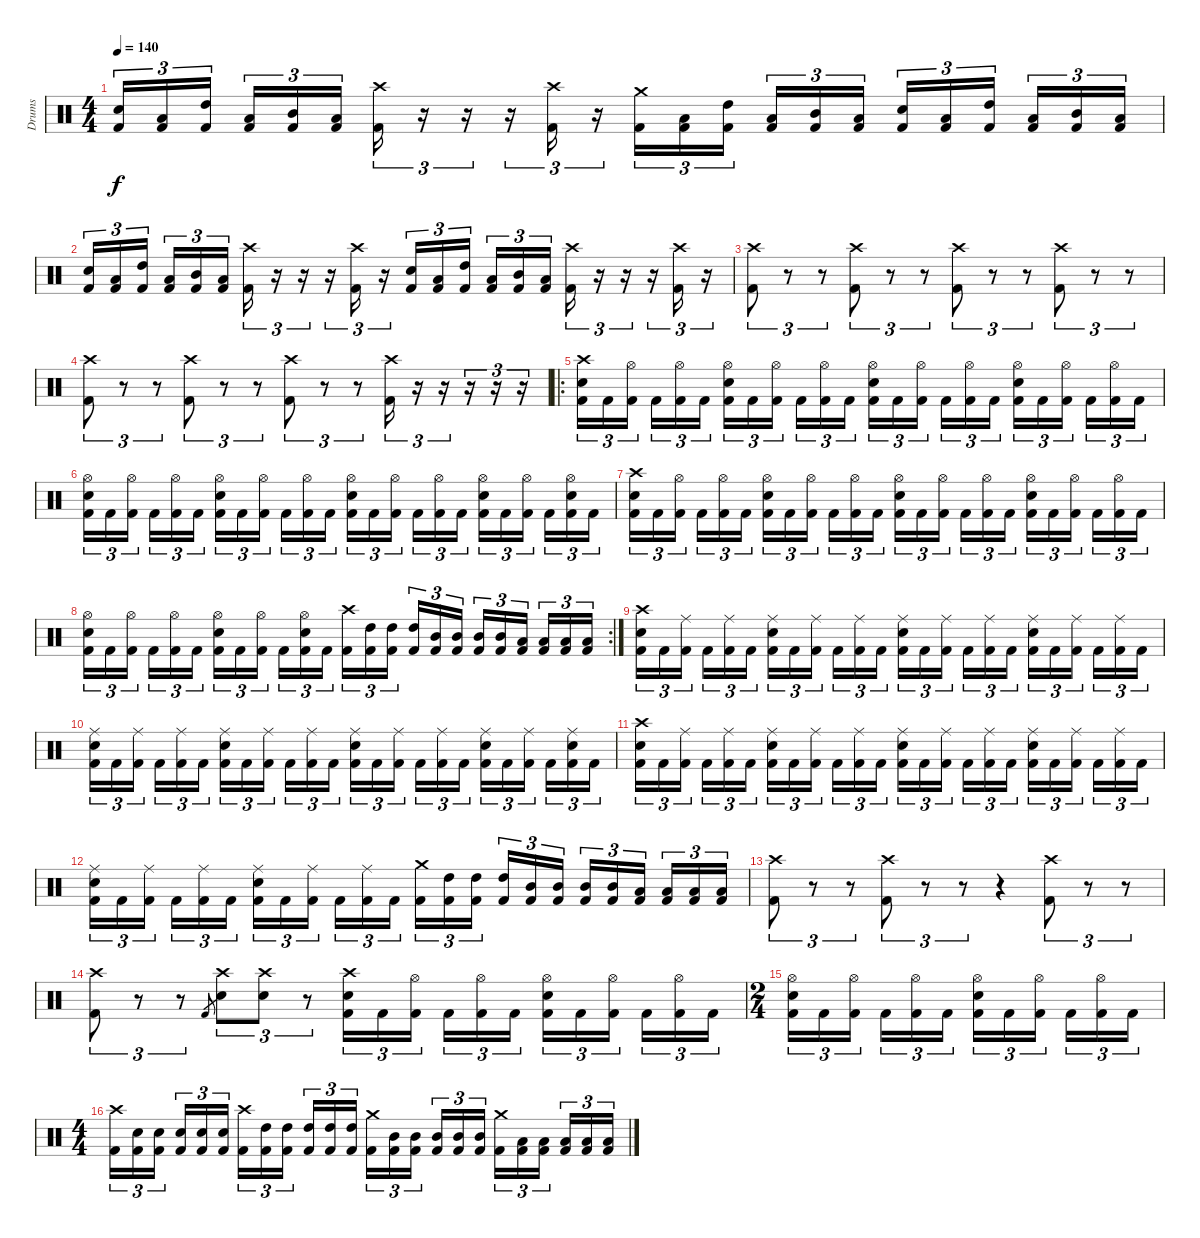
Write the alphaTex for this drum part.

\track ("Drums" "Drums") {instrument percussion}
\staff {score}
\articulation defaults
\ts (4 4)
\tempo 140
\clef neutral
\ks c
("Kick (hit) 2" "Snare (hit) 2").16{tu (3 2) dy f} ("Kick (hit) 2" "Low Tom (hit)").16{tu (3 2)} ("Kick (hit) 2" "High Tom (hit)").16{tu (3 2)} ("Kick (hit) 2" "Low Tom (hit)").16{tu (3 2)} ("Kick (hit) 2" "Mid Tom (hit)").16{tu (3 2)} ("Kick (hit) 2" "Low Tom (hit)").16{tu (3 2)} ("Kick (hit) 2" "Crash high (hit)").16{tu (3 2)} r.16{tu (3 2)} r.16{tu (3 2)} r.16{tu (3 2)} ("Kick (hit) 2" "Crash high (hit)").16{tu (3 2)} r.16{tu (3 2)} ("Kick (hit) 2" "Crash medium (hit)").16{tu (3 2)} ("Kick (hit) 2" "Low Tom (hit)").16{tu (3 2)} ("Kick (hit) 2" "High Tom (hit)").16{tu (3 2)} ("Kick (hit) 2" "Low Tom (hit)").16{tu (3 2)} ("Kick (hit) 2" "Mid Tom (hit)").16{tu (3 2)} ("Kick (hit) 2" "Low Tom (hit)").16{tu (3 2)} ("Kick (hit) 2" "Snare (hit) 2").16{tu (3 2)} ("Kick (hit) 2" "Low Tom (hit)").16{tu (3 2)} ("Kick (hit) 2" "High Tom (hit)").16{tu (3 2)} ("Kick (hit) 2" "Low Tom (hit)").16{tu (3 2)} ("Kick (hit) 2" "Mid Tom (hit)").16{tu (3 2)} ("Kick (hit) 2" "Low Tom (hit)").16{tu (3 2)} |
("Kick (hit) 2" "Snare (hit) 2").16{tu (3 2)} ("Kick (hit) 2" "Low Tom (hit)").16{tu (3 2)} ("Kick (hit) 2" "High Tom (hit)").16{tu (3 2)} ("Kick (hit) 2" "Low Tom (hit)").16{tu (3 2)} ("Kick (hit) 2" "Mid Tom (hit)").16{tu (3 2)} ("Kick (hit) 2" "Low Tom (hit)").16{tu (3 2)} ("Kick (hit) 2" "Crash high (hit)").16{tu (3 2)} r.16{tu (3 2)} r.16{tu (3 2)} r.16{tu (3 2)} ("Kick (hit) 2" "Crash high (hit)").16{tu (3 2)} r.16{tu (3 2)} ("Kick (hit) 2" "Snare (hit) 2").16{tu (3 2)} ("Kick (hit) 2" "Low Tom (hit)").16{tu (3 2)} ("Kick (hit) 2" "High Tom (hit)").16{tu (3 2)} ("Kick (hit) 2" "Low Tom (hit)").16{tu (3 2)} ("Kick (hit) 2" "Mid Tom (hit)").16{tu (3 2)} ("Kick (hit) 2" "Low Tom (hit)").16{tu (3 2)} ("Kick (hit) 2" "Crash high (hit)").16{tu (3 2)} r.16{tu (3 2)} r.16{tu (3 2)} r.16{tu (3 2)} ("Kick (hit) 2" "Crash high (hit)").16{tu (3 2)} r.16{tu (3 2)} |
("Kick (hit) 2" "Crash high (hit)").8{tu (3 2)} r.8{tu (3 2)} r.8{tu (3 2)} ("Kick (hit) 2" "Crash high (hit)").8{tu (3 2)} r.8{tu (3 2)} r.8{tu (3 2)} ("Kick (hit) 2" "Crash high (hit)").8{tu (3 2)} r.8{tu (3 2)} r.8{tu (3 2)} ("Kick (hit) 2" "Crash high (hit)").8{tu (3 2)} r.8{tu (3 2)} r.8{tu (3 2)} |
("Kick (hit) 2" "Crash high (hit)").8{tu (3 2)} r.8{tu (3 2)} r.8{tu (3 2)} ("Kick (hit) 2" "Crash high (hit)").8{tu (3 2)} r.8{tu (3 2)} r.8{tu (3 2)} ("Kick (hit) 2" "Crash high (hit)").8{tu (3 2)} r.8{tu (3 2)} r.8{tu (3 2)} ("Kick (hit) 2" "Crash high (hit)").16{tu (3 2)} r.16{tu (3 2)} r.16{tu (3 2)} r.16{tu (3 2)} r.16{tu (3 2)} r.16{tu (3 2)} |
\ro
("Kick (hit) 2" "Snare (hit) 2" "Crash high (hit)").16{tu (3 2)} "Kick (hit) 2".16{tu (3 2)} ("Kick (hit) 2" "Hi-Hat (open)").16{tu (3 2)} "Kick (hit) 2".16{tu (3 2)} ("Kick (hit) 2" "Hi-Hat (open)").16{tu (3 2)} "Kick (hit) 2".16{tu (3 2)} ("Kick (hit) 2" "Snare (hit) 2" "Hi-Hat (open)").16{tu (3 2)} "Kick (hit) 2".16{tu (3 2)} ("Kick (hit) 2" "Hi-Hat (open)").16{tu (3 2)} "Kick (hit) 2".16{tu (3 2)} ("Kick (hit) 2" "Hi-Hat (open)").16{tu (3 2)} "Kick (hit) 2".16{tu (3 2)} ("Kick (hit) 2" "Snare (hit) 2" "Hi-Hat (open)").16{tu (3 2)} "Kick (hit) 2".16{tu (3 2)} ("Kick (hit) 2" "Hi-Hat (open)").16{tu (3 2)} "Kick (hit) 2".16{tu (3 2)} ("Kick (hit) 2" "Hi-Hat (open)").16{tu (3 2)} "Kick (hit) 2".16{tu (3 2)} ("Kick (hit) 2" "Snare (hit) 2" "Hi-Hat (open)").16{tu (3 2)} "Kick (hit) 2".16{tu (3 2)} ("Kick (hit) 2" "Hi-Hat (open)").16{tu (3 2)} "Kick (hit) 2".16{tu (3 2)} ("Kick (hit) 2" "Hi-Hat (open)").16{tu (3 2)} "Kick (hit) 2".16{tu (3 2)} |
("Kick (hit) 2" "Snare (hit) 2" "Hi-Hat (open)").16{tu (3 2)} "Kick (hit) 2".16{tu (3 2)} ("Kick (hit) 2" "Hi-Hat (open)").16{tu (3 2)} "Kick (hit) 2".16{tu (3 2)} ("Kick (hit) 2" "Hi-Hat (open)").16{tu (3 2)} "Kick (hit) 2".16{tu (3 2)} ("Kick (hit) 2" "Snare (hit) 2" "Hi-Hat (open)").16{tu (3 2)} "Kick (hit) 2".16{tu (3 2)} ("Kick (hit) 2" "Hi-Hat (open)").16{tu (3 2)} "Kick (hit) 2".16{tu (3 2)} ("Kick (hit) 2" "Hi-Hat (open)").16{tu (3 2)} "Kick (hit) 2".16{tu (3 2)} ("Kick (hit) 2" "Snare (hit) 2" "Hi-Hat (open)").16{tu (3 2)} "Kick (hit) 2".16{tu (3 2)} ("Kick (hit) 2" "Hi-Hat (open)").16{tu (3 2)} "Kick (hit) 2".16{tu (3 2)} ("Kick (hit) 2" "Hi-Hat (open)").16{tu (3 2)} "Kick (hit) 2".16{tu (3 2)} ("Kick (hit) 2" "Snare (hit) 2" "Hi-Hat (open)").16{tu (3 2)} "Kick (hit) 2".16{tu (3 2)} ("Kick (hit) 2" "Hi-Hat (open)").16{tu (3 2)} "Kick (hit) 2".16{tu (3 2)} ("Kick (hit) 2" "Snare (hit) 2" "Hi-Hat (open)").16{tu (3 2)} "Kick (hit) 2".16{tu (3 2)} |
("Kick (hit) 2" "Snare (hit) 2" "Crash high (hit)").16{tu (3 2)} "Kick (hit) 2".16{tu (3 2)} ("Kick (hit) 2" "Hi-Hat (open)").16{tu (3 2)} "Kick (hit) 2".16{tu (3 2)} ("Kick (hit) 2" "Hi-Hat (open)").16{tu (3 2)} "Kick (hit) 2".16{tu (3 2)} ("Kick (hit) 2" "Snare (hit) 2" "Hi-Hat (open)").16{tu (3 2)} "Kick (hit) 2".16{tu (3 2)} ("Kick (hit) 2" "Hi-Hat (open)").16{tu (3 2)} "Kick (hit) 2".16{tu (3 2)} ("Kick (hit) 2" "Hi-Hat (open)").16{tu (3 2)} "Kick (hit) 2".16{tu (3 2)} ("Kick (hit) 2" "Snare (hit) 2" "Hi-Hat (open)").16{tu (3 2)} "Kick (hit) 2".16{tu (3 2)} ("Kick (hit) 2" "Hi-Hat (open)").16{tu (3 2)} "Kick (hit) 2".16{tu (3 2)} ("Kick (hit) 2" "Hi-Hat (open)").16{tu (3 2)} "Kick (hit) 2".16{tu (3 2)} ("Kick (hit) 2" "Snare (hit) 2" "Hi-Hat (open)").16{tu (3 2)} "Kick (hit) 2".16{tu (3 2)} ("Kick (hit) 2" "Hi-Hat (open)").16{tu (3 2)} "Kick (hit) 2".16{tu (3 2)} ("Kick (hit) 2" "Hi-Hat (open)").16{tu (3 2)} "Kick (hit) 2".16{tu (3 2)} |
\rc 2
("Kick (hit) 2" "Snare (hit) 2" "Hi-Hat (open)").16{tu (3 2)} "Kick (hit) 2".16{tu (3 2)} ("Kick (hit) 2" "Hi-Hat (open)").16{tu (3 2)} "Kick (hit) 2".16{tu (3 2)} ("Kick (hit) 2" "Hi-Hat (open)").16{tu (3 2)} "Kick (hit) 2".16{tu (3 2)} ("Kick (hit) 2" "Snare (hit) 2" "Hi-Hat (open)").16{tu (3 2)} "Kick (hit) 2".16{tu (3 2)} ("Kick (hit) 2" "Hi-Hat (open)").16{tu (3 2)} "Kick (hit) 2".16{tu (3 2)} ("Kick (hit) 2" "Snare (hit) 2" "Hi-Hat (open)").16{tu (3 2)} "Kick (hit) 2".16{tu (3 2)} ("Kick (hit) 2" "Crash high (hit)").16{tu (3 2)} ("Kick (hit) 2" "High Tom (hit)").16{tu (3 2)} ("Kick (hit) 2" "High Tom (hit)").16{tu (3 2)} ("Kick (hit) 2" "High Tom (hit)").16{tu (3 2)} ("Kick (hit) 2" "Mid Tom (hit)").16{tu (3 2)} ("Kick (hit) 2" "Mid Tom (hit)").16{tu (3 2)} ("Kick (hit) 2" "Mid Tom (hit)").16{tu (3 2)} ("Kick (hit) 2" "Mid Tom (hit)").16{tu (3 2)} ("Kick (hit) 2" "Low Tom (hit)").16{tu (3 2)} ("Kick (hit) 2" "Low Tom (hit)").16{tu (3 2)} ("Kick (hit) 2" "Low Tom (hit)").16{tu (3 2)} ("Kick (hit) 2" "Low Tom (hit)").16{tu (3 2)} |
("Kick (hit) 2" "Snare (hit) 2" "Crash high (hit)").16{tu (3 2)} "Kick (hit) 2".16{tu (3 2)} ("Kick (hit) 2" "Ride (middle)").16{tu (3 2)} "Kick (hit) 2".16{tu (3 2)} ("Kick (hit) 2" "Ride (middle)").16{tu (3 2)} "Kick (hit) 2".16{tu (3 2)} ("Kick (hit) 2" "Snare (hit) 2" "Ride (middle)").16{tu (3 2)} "Kick (hit) 2".16{tu (3 2)} ("Kick (hit) 2" "Ride (middle)").16{tu (3 2)} "Kick (hit) 2".16{tu (3 2)} ("Kick (hit) 2" "Ride (middle)").16{tu (3 2)} "Kick (hit) 2".16{tu (3 2)} ("Kick (hit) 2" "Snare (hit) 2" "Ride (middle)").16{tu (3 2)} "Kick (hit) 2".16{tu (3 2)} ("Kick (hit) 2" "Ride (middle)").16{tu (3 2)} "Kick (hit) 2".16{tu (3 2)} ("Kick (hit) 2" "Ride (middle)").16{tu (3 2)} "Kick (hit) 2".16{tu (3 2)} ("Kick (hit) 2" "Snare (hit) 2" "Ride (middle)").16{tu (3 2)} "Kick (hit) 2".16{tu (3 2)} ("Kick (hit) 2" "Ride (middle)").16{tu (3 2)} "Kick (hit) 2".16{tu (3 2)} ("Kick (hit) 2" "Ride (middle)").16{tu (3 2)} "Kick (hit) 2".16{tu (3 2)} |
("Kick (hit) 2" "Snare (hit) 2" "Ride (middle)").16{tu (3 2)} "Kick (hit) 2".16{tu (3 2)} ("Kick (hit) 2" "Ride (middle)").16{tu (3 2)} "Kick (hit) 2".16{tu (3 2)} ("Kick (hit) 2" "Ride (middle)").16{tu (3 2)} "Kick (hit) 2".16{tu (3 2)} ("Kick (hit) 2" "Snare (hit) 2" "Ride (middle)").16{tu (3 2)} "Kick (hit) 2".16{tu (3 2)} ("Kick (hit) 2" "Ride (middle)").16{tu (3 2)} "Kick (hit) 2".16{tu (3 2)} ("Kick (hit) 2" "Ride (middle)").16{tu (3 2)} "Kick (hit) 2".16{tu (3 2)} ("Kick (hit) 2" "Snare (hit) 2" "Ride (middle)").16{tu (3 2)} "Kick (hit) 2".16{tu (3 2)} ("Kick (hit) 2" "Ride (middle)").16{tu (3 2)} "Kick (hit) 2".16{tu (3 2)} ("Kick (hit) 2" "Ride (middle)").16{tu (3 2)} "Kick (hit) 2".16{tu (3 2)} ("Kick (hit) 2" "Snare (hit) 2" "Ride (middle)").16{tu (3 2)} "Kick (hit) 2".16{tu (3 2)} ("Kick (hit) 2" "Ride (middle)").16{tu (3 2)} "Kick (hit) 2".16{tu (3 2)} ("Kick (hit) 2" "Snare (hit) 2" "Ride (middle)").16{tu (3 2)} "Kick (hit) 2".16{tu (3 2)} |
("Kick (hit) 2" "Snare (hit) 2" "Crash high (hit)").16{tu (3 2)} "Kick (hit) 2".16{tu (3 2)} ("Kick (hit) 2" "Ride (middle)").16{tu (3 2)} "Kick (hit) 2".16{tu (3 2)} ("Kick (hit) 2" "Ride (middle)").16{tu (3 2)} "Kick (hit) 2".16{tu (3 2)} ("Kick (hit) 2" "Snare (hit) 2" "Ride (middle)").16{tu (3 2)} "Kick (hit) 2".16{tu (3 2)} ("Kick (hit) 2" "Ride (middle)").16{tu (3 2)} "Kick (hit) 2".16{tu (3 2)} ("Kick (hit) 2" "Ride (middle)").16{tu (3 2)} "Kick (hit) 2".16{tu (3 2)} ("Kick (hit) 2" "Snare (hit) 2" "Ride (middle)").16{tu (3 2)} "Kick (hit) 2".16{tu (3 2)} ("Kick (hit) 2" "Ride (middle)").16{tu (3 2)} "Kick (hit) 2".16{tu (3 2)} ("Kick (hit) 2" "Ride (middle)").16{tu (3 2)} "Kick (hit) 2".16{tu (3 2)} ("Kick (hit) 2" "Snare (hit) 2" "Ride (middle)").16{tu (3 2)} "Kick (hit) 2".16{tu (3 2)} ("Kick (hit) 2" "Ride (middle)").16{tu (3 2)} "Kick (hit) 2".16{tu (3 2)} ("Kick (hit) 2" "Ride (middle)").16{tu (3 2)} "Kick (hit) 2".16{tu (3 2)} |
("Kick (hit) 2" "Snare (hit) 2" "Ride (middle)").16{tu (3 2)} "Kick (hit) 2".16{tu (3 2)} ("Kick (hit) 2" "Ride (middle)").16{tu (3 2)} "Kick (hit) 2".16{tu (3 2)} ("Kick (hit) 2" "Ride (middle)").16{tu (3 2)} "Kick (hit) 2".16{tu (3 2)} ("Kick (hit) 2" "Snare (hit) 2" "Ride (middle)").16{tu (3 2)} "Kick (hit) 2".16{tu (3 2)} ("Kick (hit) 2" "Ride (middle)").16{tu (3 2)} "Kick (hit) 2".16{tu (3 2)} ("Kick (hit) 2" "Ride (middle)").16{tu (3 2)} "Kick (hit) 2".16{tu (3 2)} ("Kick (hit) 2" "Crash medium (hit)").16{tu (3 2)} ("Kick (hit) 2" "High Tom (hit)").16{tu (3 2)} ("Kick (hit) 2" "High Tom (hit)").16{tu (3 2)} ("Kick (hit) 2" "High Tom (hit)").16{tu (3 2)} ("Kick (hit) 2" "Mid Tom (hit)").16{tu (3 2)} ("Kick (hit) 2" "Mid Tom (hit)").16{tu (3 2)} ("Kick (hit) 2" "Mid Tom (hit)").16{tu (3 2)} ("Kick (hit) 2" "Mid Tom (hit)").16{tu (3 2)} ("Kick (hit) 2" "Low Tom (hit)").16{tu (3 2)} ("Kick (hit) 2" "Low Tom (hit)").16{tu (3 2)} ("Kick (hit) 2" "Low Tom (hit)").16{tu (3 2)} ("Kick (hit) 2" "Low Tom (hit)").16{tu (3 2)} |
("Kick (hit) 2" "Crash high (hit)").8{tu (3 2)} r.8{tu (3 2)} r.8{tu (3 2)} ("Kick (hit) 2" "Crash high (hit)").8{tu (3 2)} r.8{tu (3 2)} r.8{tu (3 2)} r.4 ("Kick (hit) 2" "Crash high (hit)").8{tu (3 2)} r.8{tu (3 2)} r.8{tu (3 2)} |
("Kick (hit) 2" "Crash high (hit)").8{tu (3 2)} r.8{tu (3 2)} r.8{tu (3 2)} "Kick (hit) 2".8{gr} ("Snare (hit) 2" "Crash high (hit)").8{tu (3 2)} ("Snare (hit) 2" "Crash high (hit)").8{tu (3 2)} r.8{tu (3 2)} ("Kick (hit) 2" "Snare (hit) 2" "Crash high (hit)").16{tu (3 2)} "Kick (hit) 2".16{tu (3 2)} ("Kick (hit) 2" "Hi-Hat (open)").16{tu (3 2)} "Kick (hit) 2".16{tu (3 2)} ("Kick (hit) 2" "Hi-Hat (open)").16{tu (3 2)} "Kick (hit) 2".16{tu (3 2)} ("Kick (hit) 2" "Snare (hit) 2" "Hi-Hat (open)").16{tu (3 2)} "Kick (hit) 2".16{tu (3 2)} ("Kick (hit) 2" "Hi-Hat (open)").16{tu (3 2)} "Kick (hit) 2".16{tu (3 2)} ("Kick (hit) 2" "Hi-Hat (open)").16{tu (3 2)} "Kick (hit) 2".16{tu (3 2)} |
\ts (2 4)
("Kick (hit) 2" "Snare (hit) 2" "Hi-Hat (open)").16{tu (3 2)} "Kick (hit) 2".16{tu (3 2)} ("Kick (hit) 2" "Hi-Hat (open)").16{tu (3 2)} "Kick (hit) 2".16{tu (3 2)} ("Kick (hit) 2" "Hi-Hat (open)").16{tu (3 2)} "Kick (hit) 2".16{tu (3 2)} ("Kick (hit) 2" "Snare (hit) 2" "Hi-Hat (open)").16{tu (3 2)} "Kick (hit) 2".16{tu (3 2)} ("Kick (hit) 2" "Hi-Hat (open)").16{tu (3 2)} "Kick (hit) 2".16{tu (3 2)} ("Kick (hit) 2" "Hi-Hat (open)").16{tu (3 2)} "Kick (hit) 2".16{tu (3 2)} |
\ts (4 4)
("Kick (hit) 2" "Crash high (hit)").16{tu (3 2)} ("Kick (hit) 2" "Snare (hit) 2").16{tu (3 2)} ("Kick (hit) 2" "Snare (hit) 2").16{tu (3 2)} ("Kick (hit) 2" "Snare (hit) 2").16{tu (3 2)} ("Kick (hit) 2" "Snare (hit) 2").16{tu (3 2)} ("Kick (hit) 2" "Snare (hit) 2").16{tu (3 2)} ("Kick (hit) 2" "Crash high (hit)").16{tu (3 2)} ("Kick (hit) 2" "High Tom (hit)").16{tu (3 2)} ("Kick (hit) 2" "High Tom (hit)").16{tu (3 2)} ("Kick (hit) 2" "High Tom (hit)").16{tu (3 2)} ("Kick (hit) 2" "High Tom (hit)").16{tu (3 2)} ("Kick (hit) 2" "High Tom (hit)").16{tu (3 2)} ("Kick (hit) 2" "Crash medium (hit)").16{tu (3 2)} ("Kick (hit) 2" "Mid Tom (hit)").16{tu (3 2)} ("Kick (hit) 2" "Mid Tom (hit)").16{tu (3 2)} ("Kick (hit) 2" "Mid Tom (hit)").16{tu (3 2)} ("Kick (hit) 2" "Mid Tom (hit)").16{tu (3 2)} ("Kick (hit) 2" "Mid Tom (hit)").16{tu (3 2)} ("Kick (hit) 2" "Crash medium (hit)").16{tu (3 2)} ("Kick (hit) 2" "Low Tom (hit)").16{tu (3 2)} ("Kick (hit) 2" "Low Tom (hit)").16{tu (3 2)} ("Kick (hit) 2" "Low Tom (hit)").16{tu (3 2)} ("Kick (hit) 2" "Low Tom (hit)").16{tu (3 2)} ("Kick (hit) 2" "Low Tom (hit)").16{tu (3 2)}
